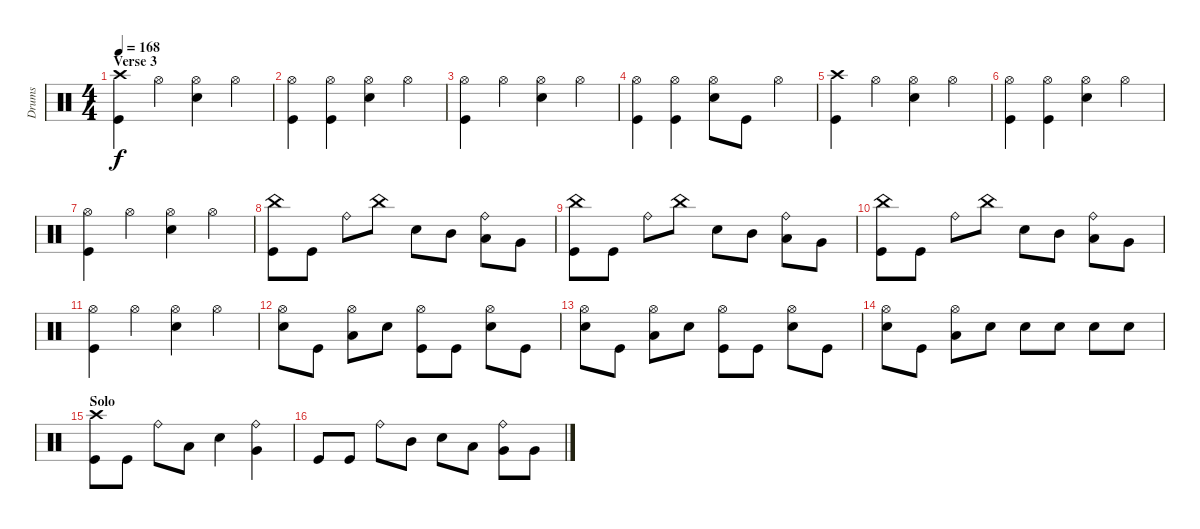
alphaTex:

\track ("Drums" "Drums") {instrument percussion}
\staff {score}
\articulation defaults
\ts (4 4)
\section ("" "Verse 3")
\tempo 168
\clef neutral
\ks c
("Crash high (hit)" "Kick (hit)").4{dy f} "Hi-Hat (open)".4 ("Hi-Hat (open)" "Electric Snare (hit)").4 "Hi-Hat (open)".4 |
("Hi-Hat (open)" "Kick (hit)").4 ("Hi-Hat (open)" "Kick (hit)").4 ("Hi-Hat (open)" "Electric Snare (hit)").4 "Hi-Hat (open)".4 |
("Hi-Hat (open)" "Kick (hit)").4 "Hi-Hat (open)".4 ("Hi-Hat (open)" "Electric Snare (hit)").4 "Hi-Hat (open)".4 |
("Hi-Hat (open)" "Kick (hit)").4 ("Hi-Hat (open)" "Kick (hit)").4 ("Hi-Hat (open)" "Electric Snare (hit)").8 "Kick (hit)".8 "Hi-Hat (open)".4 |
("Crash high (hit)" "Kick (hit)").4 "Hi-Hat (open)".4 ("Hi-Hat (open)" "Electric Snare (hit)").4 "Hi-Hat (open)".4 |
("Hi-Hat (open)" "Kick (hit)").4 ("Hi-Hat (open)" "Kick (hit)").4 ("Hi-Hat (open)" "Electric Snare (hit)").4 "Hi-Hat (open)".4 |
("Hi-Hat (open)" "Kick (hit)").4 "Hi-Hat (open)".4 ("Hi-Hat (open)" "Electric Snare (hit)").4 "Hi-Hat (open)".4 |
("China (hit)" "Kick (hit)").8 "Kick (hit)".8 "Ride (bell)".8 "China (hit)".8 "Electric Snare (hit)".8 "Mid Tom (hit)".8 ("Ride (bell)" "Low Tom (hit)").8 "Very Low Tom (hit)".8 |
("China (hit)" "Kick (hit)").8 "Kick (hit)".8 "Ride (bell)".8 "China (hit)".8 "Electric Snare (hit)".8 "Mid Tom (hit)".8 ("Ride (bell)" "Low Tom (hit)").8 "Very Low Tom (hit)".8 |
("China (hit)" "Kick (hit)").8 "Kick (hit)".8 "Ride (bell)".8 "China (hit)".8 "Electric Snare (hit)".8 "Mid Tom (hit)".8 ("Ride (bell)" "Low Tom (hit)").8 "Very Low Tom (hit)".8 |
("Hi-Hat (open)" "Kick (hit)").4 "Hi-Hat (open)".4 ("Hi-Hat (open)" "Electric Snare (hit)").4 "Hi-Hat (open)".4 |
("Hi-Hat (open)" "Electric Snare (hit)").8 "Kick (hit)".8 ("Hi-Hat (open)" "Low Tom (hit)").8 "Electric Snare (hit)".8 ("Hi-Hat (open)" "Kick (hit)").8 "Kick (hit)".8 ("Hi-Hat (open)" "Electric Snare (hit)").8 "Kick (hit)".8 |
("Hi-Hat (open)" "Electric Snare (hit)").8 "Kick (hit)".8 ("Hi-Hat (open)" "Low Tom (hit)").8 "Electric Snare (hit)".8 ("Hi-Hat (open)" "Kick (hit)").8 "Kick (hit)".8 ("Hi-Hat (open)" "Electric Snare (hit)").8 "Kick (hit)".8 |
("Hi-Hat (open)" "Electric Snare (hit)").8 "Kick (hit)".8 ("Hi-Hat (open)" "Low Tom (hit)").8 "Electric Snare (hit)".8 "Electric Snare (hit)".8 "Electric Snare (hit)".8 "Electric Snare (hit)".8 "Electric Snare (hit)".8 |
\section ("" "Solo")
("Crash high (hit)" "Kick (hit)").8 "Kick (hit)".8 "Ride (bell)".8 "Low Tom (hit)".8 "Electric Snare (hit)".4 ("Ride (bell)" "Very Low Tom (hit)").4 |
"Kick (hit)".8 "Kick (hit)".8 "Ride (bell)".8 "Mid Tom (hit)".8 "Electric Snare (hit)".8 "Low Tom (hit)".8 ("Ride (bell)" "Very Low Tom (hit)").8 "Very Low Tom (hit)".8
